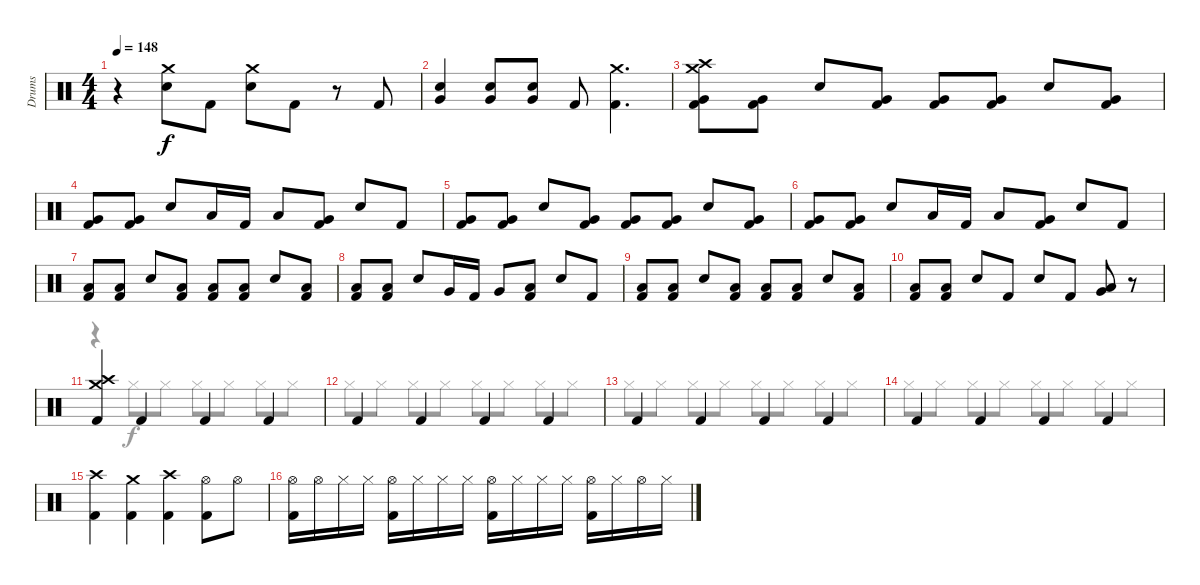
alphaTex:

\track ("Drums" "Drums") {instrument percussion}
\staff {score}
\articulation defaults
\voice
\ts (4 4)
\tempo 148
\clef neutral
\ks c
r.4{dy f} ("Crash medium (hit)" "Snare (hit) 2").8 "Kick (hit) 2".8 ("Crash medium (hit)" "Snare (hit) 2").8 "Kick (hit) 2".8 r.8 "Kick (hit) 2".8 |
("Very Low Tom (hit)" "Snare (hit) 2").4 ("Very Low Tom (hit)" "Snare (hit) 2").8 ("Very Low Tom (hit)" "Snare (hit) 2").8 "Kick (hit) 2".8 ("Crash medium (hit)" "Kick (hit) 2").4{d} |
("Crash high (hit)" "Crash medium (hit)" "Very Low Tom (hit)" "Kick (hit) 2").8 ("Very Low Tom (hit)" "Kick (hit) 2").8 "Snare (hit) 2".8 ("Very Low Tom (hit)" "Kick (hit) 2").8 ("Very Low Tom (hit)" "Kick (hit) 2").8 ("Very Low Tom (hit)" "Kick (hit) 2").8 "Snare (hit) 2".8 ("Very Low Tom (hit)" "Kick (hit) 2").8 |
("Very Low Tom (hit)" "Kick (hit) 2").8 ("Very Low Tom (hit)" "Kick (hit) 2").8 "Snare (hit) 2".8 "Low Tom (hit)".16 "Kick (hit) 2".16 "Low Tom (hit)".8 ("Very Low Tom (hit)" "Kick (hit) 2").8 "Snare (hit) 2".8 "Kick (hit) 2".8 |
("Very Low Tom (hit)" "Kick (hit) 2").8 ("Very Low Tom (hit)" "Kick (hit) 2").8 "Snare (hit) 2".8 ("Very Low Tom (hit)" "Kick (hit) 2").8 ("Very Low Tom (hit)" "Kick (hit) 2").8 ("Very Low Tom (hit)" "Kick (hit) 2").8 "Snare (hit) 2".8 ("Very Low Tom (hit)" "Kick (hit) 2").8 |
("Very Low Tom (hit)" "Kick (hit) 2").8 ("Very Low Tom (hit)" "Kick (hit) 2").8 "Snare (hit) 2".8 "Low Tom (hit)".16 "Kick (hit) 2".16 "Low Tom (hit)".8 ("Very Low Tom (hit)" "Kick (hit) 2").8 "Snare (hit) 2".8 "Kick (hit) 2".8 |
("Low Tom (hit)" "Kick (hit) 2").8 ("Low Tom (hit)" "Kick (hit) 2").8 "Snare (hit) 2".8 ("Low Tom (hit)" "Kick (hit) 2").8 ("Low Tom (hit)" "Kick (hit) 2").8 ("Low Tom (hit)" "Kick (hit) 2").8 "Snare (hit) 2".8 ("Low Tom (hit)" "Kick (hit) 2").8 |
("Low Tom (hit)" "Kick (hit) 2").8 ("Low Tom (hit)" "Kick (hit) 2").8 "Snare (hit) 2".8 "Very Low Tom (hit)".16 "Kick (hit) 2".16 "Very Low Tom (hit)".8 ("Low Tom (hit)" "Kick (hit) 2").8 "Snare (hit) 2".8 "Kick (hit) 2".8 |
("Low Tom (hit)" "Kick (hit) 2").8 ("Low Tom (hit)" "Kick (hit) 2").8 "Snare (hit) 2".8 ("Low Tom (hit)" "Kick (hit) 2").8 ("Low Tom (hit)" "Kick (hit) 2").8 ("Low Tom (hit)" "Kick (hit) 2").8 "Snare (hit) 2".8 ("Low Tom (hit)" "Kick (hit) 2").8 |
("Low Tom (hit)" "Kick (hit) 2").8 ("Low Tom (hit)" "Kick (hit) 2").8 "Snare (hit) 2".8 "Kick (hit) 2".8 "Snare (hit) 2".8 "Kick (hit) 2".8 ("Very Low Tom (hit)" "Low Tom (hit)").8 r.8 |
("Crash high (hit)" "Crash medium (hit)" "Kick (hit) 2").4 "Kick (hit) 2".4 "Kick (hit) 2".4 "Kick (hit) 2".4 |
"Kick (hit) 2".4 "Kick (hit) 2".4 "Kick (hit) 2".4 "Kick (hit) 2".4 |
"Kick (hit) 2".4 "Kick (hit) 2".4 "Kick (hit) 2".4 "Kick (hit) 2".4 |
"Kick (hit) 2".4 "Kick (hit) 2".4 "Kick (hit) 2".4 "Kick (hit) 2".4 |
("Crash high (hit)" "Kick (hit) 2").4 ("Crash medium (hit)" "Kick (hit) 2").4 ("Crash high (hit)" "Kick (hit) 2").4 ("Hi-Hat (open)" "Kick (hit) 2").8 "Hi-Hat (open)".8 |
("Hi-Hat (open)" "Kick (hit) 2").16 "Hi-Hat (open)".16 "Hi-Hat (closed)".16 "Hi-Hat (closed)".16 ("Hi-Hat (open)" "Kick (hit) 2").16 "Hi-Hat (closed)".16 "Hi-Hat (closed)".16 "Hi-Hat (closed)".16 ("Hi-Hat (open)" "Kick (hit) 2").16 "Hi-Hat (closed)".16 "Hi-Hat (closed)".16 "Hi-Hat (closed)".16 ("Hi-Hat (open)" "Kick (hit) 2").16 "Hi-Hat (closed)".16 "Hi-Hat (open)".16 "Hi-Hat (closed)".16
\voice
\clef neutral
\ottava regular
\simile none
\ks c
|
|
|
|
|
|
|
|
|
|
r.4 "Hi-Hat (closed)".8 "Hi-Hat (closed)".8 "Hi-Hat (closed)".8 "Hi-Hat (closed)".8 "Hi-Hat (closed)".8 "Hi-Hat (closed)".8 |
"Hi-Hat (closed)".8 "Hi-Hat (closed)".8 "Hi-Hat (closed)".8 "Hi-Hat (closed)".8 "Hi-Hat (closed)".8 "Hi-Hat (closed)".8 "Hi-Hat (closed)".8 "Hi-Hat (closed)".8 |
"Hi-Hat (closed)".8 "Hi-Hat (closed)".8 "Hi-Hat (closed)".8 "Hi-Hat (closed)".8 "Hi-Hat (closed)".8 "Hi-Hat (closed)".8 "Hi-Hat (closed)".8 "Hi-Hat (closed)".8 |
"Hi-Hat (closed)".8 "Hi-Hat (closed)".8 "Hi-Hat (closed)".8 "Hi-Hat (closed)".8 "Hi-Hat (closed)".8 "Hi-Hat (closed)".8 "Hi-Hat (closed)".8 "Hi-Hat (closed)".8 |
|
